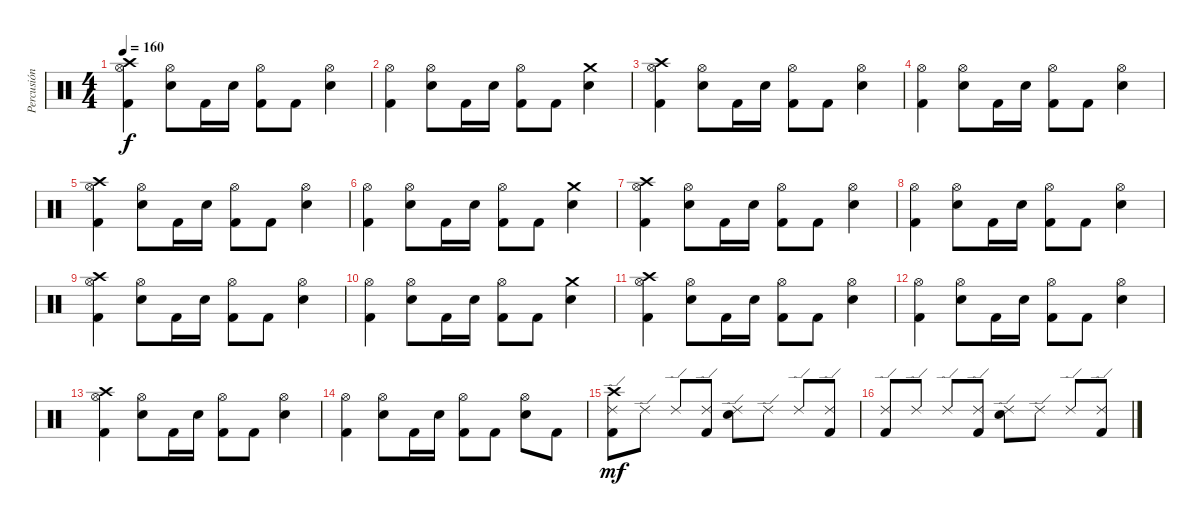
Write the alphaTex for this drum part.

\track ("Percusión" "Percusión") {instrument percussion}
\staff {score}
\articulation defaults
\ts (4 4)
\tempo 160
\clef neutral
\ks c
("Crash high (hit)" "Hi-Hat (open)" "Kick (hit) 2").4{dy f} ("Hi-Hat (open)" "Snare (hit) 2").8 "Kick (hit) 2".16 "Snare (hit) 2".16 ("Hi-Hat (open)" "Kick (hit) 2").8 "Kick (hit) 2".8 ("Hi-Hat (open)" "Snare (hit) 2").4 |
("Hi-Hat (open)" "Kick (hit) 2").4 ("Hi-Hat (open)" "Snare (hit) 2").8 "Kick (hit) 2".16 "Snare (hit) 2".16 ("Hi-Hat (open)" "Kick (hit) 2").8 "Kick (hit) 2".8 ("Crash medium (hit)" "Snare (hit) 2").4 |
("Crash high (hit)" "Hi-Hat (open)" "Kick (hit) 2").4 ("Hi-Hat (open)" "Snare (hit) 2").8 "Kick (hit) 2".16 "Snare (hit) 2".16 ("Hi-Hat (open)" "Kick (hit) 2").8 "Kick (hit) 2".8 ("Hi-Hat (open)" "Snare (hit) 2").4 |
("Hi-Hat (open)" "Kick (hit) 2").4 ("Hi-Hat (open)" "Snare (hit) 2").8 "Kick (hit) 2".16 "Snare (hit) 2".16 ("Hi-Hat (open)" "Kick (hit) 2").8 "Kick (hit) 2".8 ("Hi-Hat (open)" "Snare (hit) 2").4 |
("Crash high (hit)" "Hi-Hat (open)" "Kick (hit) 2").4 ("Hi-Hat (open)" "Snare (hit) 2").8 "Kick (hit) 2".16 "Snare (hit) 2".16 ("Hi-Hat (open)" "Kick (hit) 2").8 "Kick (hit) 2".8 ("Hi-Hat (open)" "Snare (hit) 2").4 |
("Hi-Hat (open)" "Kick (hit) 2").4 ("Hi-Hat (open)" "Snare (hit) 2").8 "Kick (hit) 2".16 "Snare (hit) 2".16 ("Hi-Hat (open)" "Kick (hit) 2").8 "Kick (hit) 2".8 ("Crash medium (hit)" "Snare (hit) 2").4 |
("Crash high (hit)" "Hi-Hat (open)" "Kick (hit) 2").4 ("Hi-Hat (open)" "Snare (hit) 2").8 "Kick (hit) 2".16 "Snare (hit) 2".16 ("Hi-Hat (open)" "Kick (hit) 2").8 "Kick (hit) 2".8 ("Hi-Hat (open)" "Snare (hit) 2").4 |
("Hi-Hat (open)" "Kick (hit) 2").4 ("Hi-Hat (open)" "Snare (hit) 2").8 "Kick (hit) 2".16 "Snare (hit) 2".16 ("Hi-Hat (open)" "Kick (hit) 2").8 "Kick (hit) 2".8 ("Hi-Hat (open)" "Snare (hit) 2").4 |
("Crash high (hit)" "Hi-Hat (open)" "Kick (hit) 2").4 ("Hi-Hat (open)" "Snare (hit) 2").8 "Kick (hit) 2".16 "Snare (hit) 2".16 ("Hi-Hat (open)" "Kick (hit) 2").8 "Kick (hit) 2".8 ("Hi-Hat (open)" "Snare (hit) 2").4 |
("Hi-Hat (open)" "Kick (hit) 2").4 ("Hi-Hat (open)" "Snare (hit) 2").8 "Kick (hit) 2".16 "Snare (hit) 2".16 ("Hi-Hat (open)" "Kick (hit) 2").8 "Kick (hit) 2".8 ("Crash medium (hit)" "Snare (hit) 2").4 |
("Crash high (hit)" "Hi-Hat (open)" "Kick (hit) 2").4 ("Hi-Hat (open)" "Snare (hit) 2").8 "Kick (hit) 2".16 "Snare (hit) 2".16 ("Hi-Hat (open)" "Kick (hit) 2").8 "Kick (hit) 2".8 ("Hi-Hat (open)" "Snare (hit) 2").4 |
("Hi-Hat (open)" "Kick (hit) 2").4 ("Hi-Hat (open)" "Snare (hit) 2").8 "Kick (hit) 2".16 "Snare (hit) 2".16 ("Hi-Hat (open)" "Kick (hit) 2").8 "Kick (hit) 2".8 ("Hi-Hat (open)" "Snare (hit) 2").4 |
("Crash high (hit)" "Hi-Hat (open)" "Kick (hit) 2").4 ("Hi-Hat (open)" "Snare (hit) 2").8 "Kick (hit) 2".16 "Snare (hit) 2".16 ("Hi-Hat (open)" "Kick (hit) 2").8 "Kick (hit) 2".8 ("Hi-Hat (open)" "Snare (hit) 2").4 |
("Hi-Hat (open)" "Kick (hit) 2").4 ("Hi-Hat (open)" "Snare (hit) 2").8 "Kick (hit) 2".16 "Snare (hit) 2".16 ("Hi-Hat (open)" "Kick (hit) 2").8 "Kick (hit) 2".8 ("Hi-Hat (open)" "Snare (hit) 2").8 "Kick (hit) 2".8 |
("Crash high (hit)" "Ride (edge) 2" "Kick (hit) 2").8{dy mf} "Ride (edge) 2".8 "Ride (edge) 2".8 ("Ride (edge) 2" "Kick (hit) 2").8 ("Ride (edge) 2" "Snare (hit) 2").8 "Ride (edge) 2".8 "Ride (edge) 2".8 ("Ride (edge) 2" "Kick (hit) 2").8 |
("Ride (edge) 2" "Kick (hit) 2").8 "Ride (edge) 2".8 "Ride (edge) 2".8 ("Ride (edge) 2" "Kick (hit) 2").8 ("Ride (edge) 2" "Snare (hit) 2").8 "Ride (edge) 2".8 "Ride (edge) 2".8 ("Ride (edge) 2" "Kick (hit) 2").8
